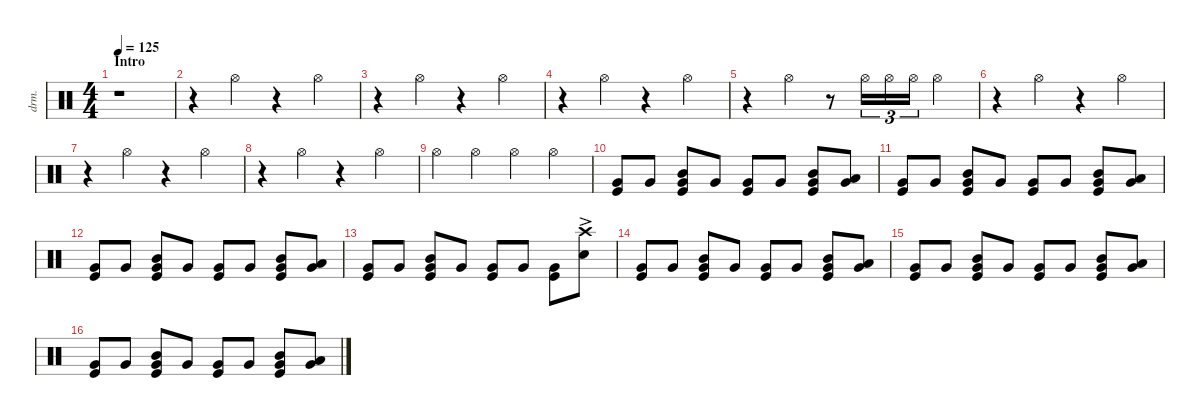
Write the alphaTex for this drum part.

\defaultSystemsLayout 4
\hideDynamics
\bracketExtendMode nobrackets
\track ("Drums" "drm.") {defaultSystemsLayout 4 multiBarRest instrument percussion}
\staff {score}
\articulation defaults
\ts (4 4)
\section ("" "Intro")
\tempo 125
\clef neutral
\ks c
r.1{dy mf beam Down} |
r.4{beam Down} "Hi-Hat (open)".4{beam Down} r.4{beam Down} "Hi-Hat (open)".4{beam Down} |
r.4{beam Down} "Hi-Hat (open)".4{beam Down} r.4{beam Down} "Hi-Hat (open)".4{beam Down} |
r.4{beam Down} "Hi-Hat (open)".4{beam Down} r.4{beam Down} "Hi-Hat (open)".4{beam Down} |
r.4{beam Down} "Hi-Hat (open)".4{beam Down} r.8{beam Down} "Hi-Hat (open)".16{tu (3 2) dy p beam Down} "Hi-Hat (open)".16{tu (3 2) beam Down} "Hi-Hat (open)".16{tu (3 2) dy mf beam Down} "Hi-Hat (open)".4{beam Down} |
r.4{beam Down} "Hi-Hat (open)".4{beam Down} r.4{beam Down} "Hi-Hat (open)".4{beam Down} |
r.4{beam Down} "Hi-Hat (open)".4{beam Down} r.4{beam Down} "Hi-Hat (open)".4{beam Down} |
r.4{beam Down} "Hi-Hat (open)".4{beam Down} r.4{beam Down} "Hi-Hat (open)".4{beam Down} |
"Hi-Hat (open)".4{beam Down} "Hi-Hat (open)".4{beam Down} "Hi-Hat (open)".4{beam Down} "Hi-Hat (open)".4{beam Down} |
("Kick (hit)" "Very Low Tom (hit)").8{dy f beam Up} "Very Low Tom (hit)".8{dy mf beam Up} ("Very Low Tom (hit)" "Kick (hit)" "Mid Tom (hit)").8{dy f beam Up} "Very Low Tom (hit)".8{dy mf beam Up} ("Very Low Tom (hit)" "Kick (hit)").8{dy f beam Up} "Very Low Tom (hit)".8{dy mf beam Up} ("Very Low Tom (hit)" "Kick (hit)" "Mid Tom (hit)").8{dy f beam Up} ("Very Low Tom (hit)" "Low Tom (hit)").8{beam Up} |
("Kick (hit)" "Very Low Tom (hit)").8{beam Up} "Very Low Tom (hit)".8{dy mf beam Up} ("Very Low Tom (hit)" "Kick (hit)" "Mid Tom (hit)").8{dy f beam Up} "Very Low Tom (hit)".8{dy mf beam Up} ("Very Low Tom (hit)" "Kick (hit)").8{dy f beam Up} "Very Low Tom (hit)".8{dy mf beam Up} ("Very Low Tom (hit)" "Kick (hit)" "Mid Tom (hit)").8{dy f beam Up} ("Very Low Tom (hit)" "Low Tom (hit)").8{beam Up} |
("Kick (hit)" "Very Low Tom (hit)").8{beam Up} "Very Low Tom (hit)".8{dy mf beam Up} ("Very Low Tom (hit)" "Kick (hit)" "Mid Tom (hit)").8{dy f beam Up} "Very Low Tom (hit)".8{dy mf beam Up} ("Very Low Tom (hit)" "Kick (hit)").8{dy f beam Up} "Very Low Tom (hit)".8{dy mf beam Up} ("Very Low Tom (hit)" "Kick (hit)" "Mid Tom (hit)").8{dy f beam Up} ("Very Low Tom (hit)" "Low Tom (hit)").8{beam Up} |
("Kick (hit)" "Very Low Tom (hit)").8{beam Up} "Very Low Tom (hit)".8{dy mf beam Up} ("Very Low Tom (hit)" "Kick (hit)" "Mid Tom (hit)").8{dy f beam Up} "Very Low Tom (hit)".8{dy mf beam Up} ("Very Low Tom (hit)" "Kick (hit)").8{dy f beam Up} "Very Low Tom (hit)".8{dy mf beam Up} ("Kick (hit)" "Very Low Tom (hit)").8{dy f beam Down} ("Snare (hit) 2" "Crash high (hit)"{ac}).8{beam Down} |
("Kick (hit)" "Very Low Tom (hit)").8{beam Up} "Very Low Tom (hit)".8{dy mf beam Up} ("Very Low Tom (hit)" "Kick (hit)" "Mid Tom (hit)").8{dy f beam Up} "Very Low Tom (hit)".8{dy mf beam Up} ("Very Low Tom (hit)" "Kick (hit)").8{dy f beam Up} "Very Low Tom (hit)".8{dy mf beam Up} ("Very Low Tom (hit)" "Kick (hit)" "Mid Tom (hit)").8{dy f beam Up} ("Very Low Tom (hit)" "Low Tom (hit)").8{beam Up} |
("Kick (hit)" "Very Low Tom (hit)").8{beam Up} "Very Low Tom (hit)".8{dy mf beam Up} ("Very Low Tom (hit)" "Kick (hit)" "Mid Tom (hit)").8{dy f beam Up} "Very Low Tom (hit)".8{dy mf beam Up} ("Very Low Tom (hit)" "Kick (hit)").8{dy f beam Up} "Very Low Tom (hit)".8{dy mf beam Up} ("Very Low Tom (hit)" "Kick (hit)" "Mid Tom (hit)").8{dy f beam Up} ("Very Low Tom (hit)" "Low Tom (hit)").8{beam Up} |
("Kick (hit)" "Very Low Tom (hit)").8{beam Up} "Very Low Tom (hit)".8{dy mf beam Up} ("Very Low Tom (hit)" "Kick (hit)" "Mid Tom (hit)").8{dy f beam Up} "Very Low Tom (hit)".8{dy mf beam Up} ("Very Low Tom (hit)" "Kick (hit)").8{dy f beam Up} "Very Low Tom (hit)".8{dy mf beam Up} ("Very Low Tom (hit)" "Kick (hit)" "Mid Tom (hit)").8{dy f beam Up} ("Very Low Tom (hit)" "Low Tom (hit)").8{beam Up}
